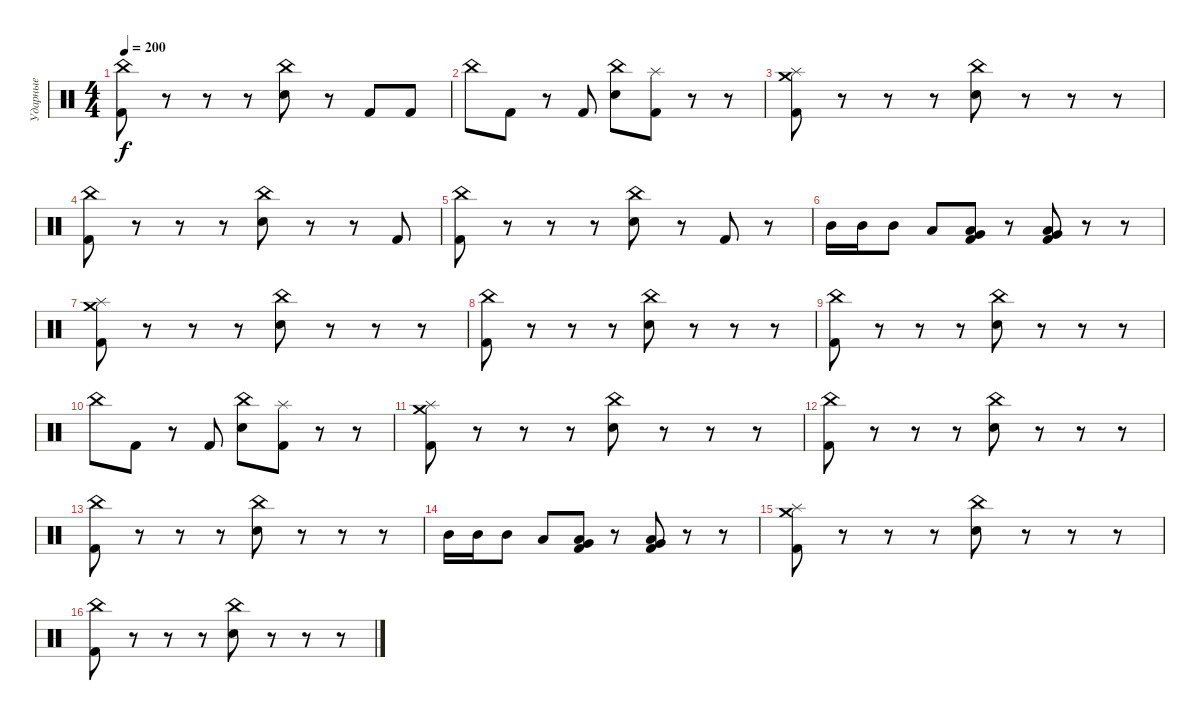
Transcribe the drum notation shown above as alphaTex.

\track ("Ударные" "Ударные") {instrument percussion}
\staff {score}
\articulation defaults
\ts (4 4)
\tempo 200
\clef neutral
\ks c
("Kick (hit) 2" "China (hit)").8{dy f} r.8 r.8 r.8 ("Electric Snare (hit)" "China (hit)").8 r.8 "Kick (hit) 2".8 "Kick (hit) 2".8 |
"China (hit)".8 "Kick (hit) 2".8 r.8 "Kick (hit) 2".8 ("Electric Snare (hit)" "China (hit)").8 ("Kick (hit) 2" "Splash (hit)").8 r.8 r.8 |
("Kick (hit) 2" "Splash (hit)" "Crash medium (hit)").8 r.8 r.8 r.8 ("Electric Snare (hit)" "China (hit)").8 r.8 r.8 r.8 |
("Kick (hit) 2" "China (hit)").8 r.8 r.8 r.8 ("Electric Snare (hit)" "China (hit)").8 r.8 r.8 "Kick (hit) 2".8 |
("Kick (hit) 2" "China (hit)").8 r.8 r.8 r.8 ("Electric Snare (hit)" "China (hit)").8 r.8 "Kick (hit) 2".8 r.8 |
"Mid Tom (hit)".16 "Mid Tom (hit)".16 "Mid Tom (hit)".8 "Low Tom (hit)".8 ("Kick (hit) 2" "Low Floor Tom (hit)" "Very Low Tom (hit)").8 r.8 ("Kick (hit) 2" "Low Floor Tom (hit)" "Very Low Tom (hit)").8 r.8 r.8 |
("Kick (hit) 2" "Splash (hit)" "Crash medium (hit)").8 r.8 r.8 r.8 ("Electric Snare (hit)" "China (hit)").8 r.8 r.8 r.8 |
("Kick (hit) 2" "China (hit)").8 r.8 r.8 r.8 ("Electric Snare (hit)" "China (hit)").8 r.8 r.8 r.8 |
("Kick (hit) 2" "China (hit)").8 r.8 r.8 r.8 ("Electric Snare (hit)" "China (hit)").8 r.8 r.8 r.8 |
"China (hit)".8 "Kick (hit) 2".8 r.8 "Kick (hit) 2".8 ("Electric Snare (hit)" "China (hit)").8 ("Kick (hit) 2" "Splash (hit)").8 r.8 r.8 |
("Kick (hit) 2" "Splash (hit)" "Crash medium (hit)").8 r.8 r.8 r.8 ("Electric Snare (hit)" "China (hit)").8 r.8 r.8 r.8 |
("Kick (hit) 2" "China (hit)").8 r.8 r.8 r.8 ("Electric Snare (hit)" "China (hit)").8 r.8 r.8 r.8 |
("Kick (hit) 2" "China (hit)").8 r.8 r.8 r.8 ("Electric Snare (hit)" "China (hit)").8 r.8 r.8 r.8 |
"Mid Tom (hit)".16 "Mid Tom (hit)".16 "Mid Tom (hit)".8 "Low Tom (hit)".8 ("Kick (hit) 2" "Low Floor Tom (hit)" "Very Low Tom (hit)").8 r.8 ("Kick (hit) 2" "Low Floor Tom (hit)" "Very Low Tom (hit)").8 r.8 r.8 |
("Kick (hit) 2" "Splash (hit)" "Crash medium (hit)").8 r.8 r.8 r.8 ("Electric Snare (hit)" "China (hit)").8 r.8 r.8 r.8 |
("Kick (hit) 2" "China (hit)").8 r.8 r.8 r.8 ("Electric Snare (hit)" "China (hit)").8 r.8 r.8 r.8
